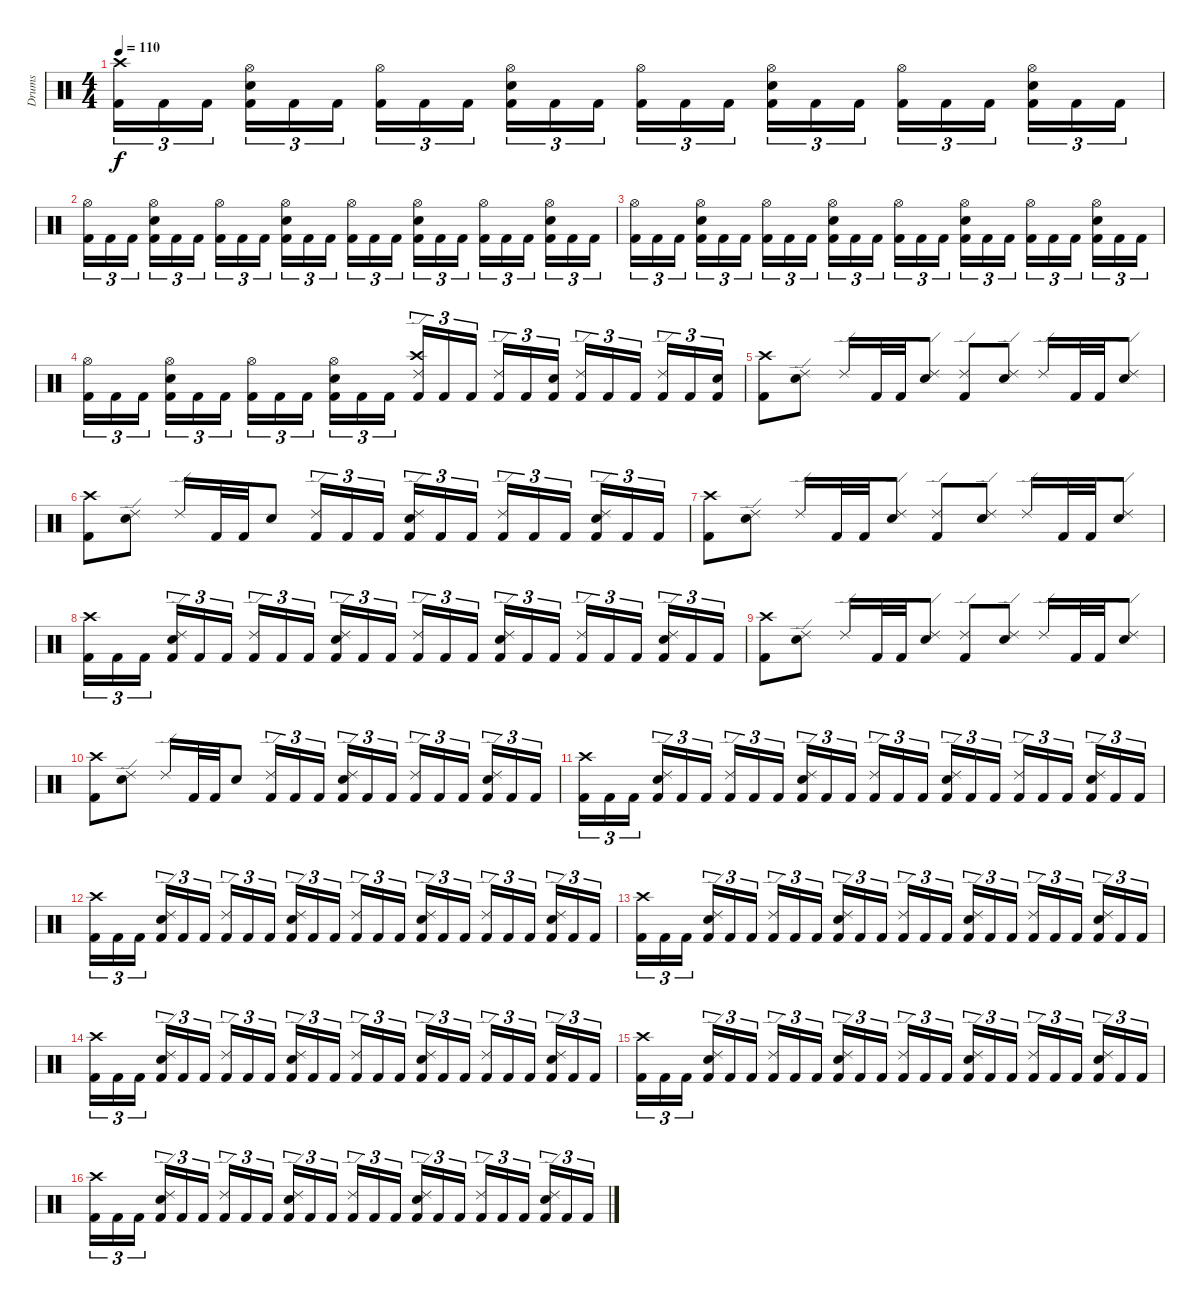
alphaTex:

\track ("Drums" "Drums") {instrument percussion}
\staff {score}
\articulation defaults
\ts (4 4)
\tempo 110
\clef neutral
\ks c
("Kick (hit) 2" "Crash high (hit)").16{tu (3 2) dy f} "Kick (hit) 2".16{tu (3 2)} "Kick (hit) 2".16{tu (3 2)} ("Kick (hit) 2" "Snare (hit) 2" "Hi-Hat (open)").16{tu (3 2)} "Kick (hit) 2".16{tu (3 2)} "Kick (hit) 2".16{tu (3 2)} ("Kick (hit) 2" "Hi-Hat (open)").16{tu (3 2)} "Kick (hit) 2".16{tu (3 2)} "Kick (hit) 2".16{tu (3 2)} ("Kick (hit) 2" "Snare (hit) 2" "Hi-Hat (open)").16{tu (3 2)} "Kick (hit) 2".16{tu (3 2)} "Kick (hit) 2".16{tu (3 2)} ("Kick (hit) 2" "Hi-Hat (open)").16{tu (3 2)} "Kick (hit) 2".16{tu (3 2)} "Kick (hit) 2".16{tu (3 2)} ("Kick (hit) 2" "Snare (hit) 2" "Hi-Hat (open)").16{tu (3 2)} "Kick (hit) 2".16{tu (3 2)} "Kick (hit) 2".16{tu (3 2)} ("Kick (hit) 2" "Hi-Hat (open)").16{tu (3 2)} "Kick (hit) 2".16{tu (3 2)} "Kick (hit) 2".16{tu (3 2)} ("Kick (hit) 2" "Snare (hit) 2" "Hi-Hat (open)").16{tu (3 2)} "Kick (hit) 2".16{tu (3 2)} "Kick (hit) 2".16{tu (3 2)} |
("Kick (hit) 2" "Hi-Hat (open)").16{tu (3 2)} "Kick (hit) 2".16{tu (3 2)} "Kick (hit) 2".16{tu (3 2)} ("Kick (hit) 2" "Snare (hit) 2" "Hi-Hat (open)").16{tu (3 2)} "Kick (hit) 2".16{tu (3 2)} "Kick (hit) 2".16{tu (3 2)} ("Kick (hit) 2" "Hi-Hat (open)").16{tu (3 2)} "Kick (hit) 2".16{tu (3 2)} "Kick (hit) 2".16{tu (3 2)} ("Kick (hit) 2" "Snare (hit) 2" "Hi-Hat (open)").16{tu (3 2)} "Kick (hit) 2".16{tu (3 2)} "Kick (hit) 2".16{tu (3 2)} ("Kick (hit) 2" "Hi-Hat (open)").16{tu (3 2)} "Kick (hit) 2".16{tu (3 2)} "Kick (hit) 2".16{tu (3 2)} ("Kick (hit) 2" "Snare (hit) 2" "Hi-Hat (open)").16{tu (3 2)} "Kick (hit) 2".16{tu (3 2)} "Kick (hit) 2".16{tu (3 2)} ("Kick (hit) 2" "Hi-Hat (open)").16{tu (3 2)} "Kick (hit) 2".16{tu (3 2)} "Kick (hit) 2".16{tu (3 2)} ("Kick (hit) 2" "Snare (hit) 2" "Hi-Hat (open)").16{tu (3 2)} "Kick (hit) 2".16{tu (3 2)} "Kick (hit) 2".16{tu (3 2)} |
("Kick (hit) 2" "Hi-Hat (open)").16{tu (3 2)} "Kick (hit) 2".16{tu (3 2)} "Kick (hit) 2".16{tu (3 2)} ("Kick (hit) 2" "Snare (hit) 2" "Hi-Hat (open)").16{tu (3 2)} "Kick (hit) 2".16{tu (3 2)} "Kick (hit) 2".16{tu (3 2)} ("Kick (hit) 2" "Hi-Hat (open)").16{tu (3 2)} "Kick (hit) 2".16{tu (3 2)} "Kick (hit) 2".16{tu (3 2)} ("Kick (hit) 2" "Snare (hit) 2" "Hi-Hat (open)").16{tu (3 2)} "Kick (hit) 2".16{tu (3 2)} "Kick (hit) 2".16{tu (3 2)} ("Kick (hit) 2" "Hi-Hat (open)").16{tu (3 2)} "Kick (hit) 2".16{tu (3 2)} "Kick (hit) 2".16{tu (3 2)} ("Kick (hit) 2" "Snare (hit) 2" "Hi-Hat (open)").16{tu (3 2)} "Kick (hit) 2".16{tu (3 2)} "Kick (hit) 2".16{tu (3 2)} ("Kick (hit) 2" "Hi-Hat (open)").16{tu (3 2)} "Kick (hit) 2".16{tu (3 2)} "Kick (hit) 2".16{tu (3 2)} ("Kick (hit) 2" "Snare (hit) 2" "Hi-Hat (open)").16{tu (3 2)} "Kick (hit) 2".16{tu (3 2)} "Kick (hit) 2".16{tu (3 2)} |
("Kick (hit) 2" "Hi-Hat (open)").16{tu (3 2)} "Kick (hit) 2".16{tu (3 2)} "Kick (hit) 2".16{tu (3 2)} ("Kick (hit) 2" "Snare (hit) 2" "Hi-Hat (open)").16{tu (3 2)} "Kick (hit) 2".16{tu (3 2)} "Kick (hit) 2".16{tu (3 2)} ("Kick (hit) 2" "Hi-Hat (open)").16{tu (3 2)} "Kick (hit) 2".16{tu (3 2)} "Kick (hit) 2".16{tu (3 2)} ("Kick (hit) 2" "Snare (hit) 2" "Hi-Hat (open)").16{tu (3 2)} "Kick (hit) 2".16{tu (3 2)} "Kick (hit) 2".16{tu (3 2)} ("Kick (hit) 2" "Ride (edge) 2" "Crash high (hit)").16{tu (3 2)} "Kick (hit) 2".16{tu (3 2)} "Kick (hit) 2".16{tu (3 2)} ("Kick (hit) 2" "Ride (edge) 2").16{tu (3 2)} "Kick (hit) 2".16{tu (3 2)} ("Kick (hit) 2" "Snare (hit) 2").16{tu (3 2)} ("Kick (hit) 2" "Ride (edge) 2").16{tu (3 2)} "Kick (hit) 2".16{tu (3 2)} "Kick (hit) 2".16{tu (3 2)} ("Kick (hit) 2" "Ride (edge) 2").16{tu (3 2)} "Kick (hit) 2".16{tu (3 2)} ("Kick (hit) 2" "Snare (hit) 2").16{tu (3 2)} |
("Kick (hit) 2" "Crash high (hit)").8 ("Snare (hit) 2" "Ride (edge) 2").8 "Ride (edge) 2".16 "Kick (hit) 2".32 "Kick (hit) 2".32 ("Snare (hit) 2" "Ride (edge) 2").8 ("Kick (hit) 2" "Ride (edge) 2").8 ("Snare (hit) 2" "Ride (edge) 2").8 "Ride (edge) 2".16 "Kick (hit) 2".32 "Kick (hit) 2".32 ("Snare (hit) 2" "Ride (edge) 2").8 |
("Kick (hit) 2" "Crash high (hit)").8 ("Snare (hit) 2" "Ride (edge) 2").8 "Ride (edge) 2".16 "Kick (hit) 2".32 "Kick (hit) 2".32 "Snare (hit) 2".8 ("Kick (hit) 2" "Ride (edge) 2").16{tu (3 2)} "Kick (hit) 2".16{tu (3 2)} "Kick (hit) 2".16{tu (3 2)} ("Kick (hit) 2" "Snare (hit) 2" "Ride (edge) 2").16{tu (3 2)} "Kick (hit) 2".16{tu (3 2)} "Kick (hit) 2".16{tu (3 2)} ("Kick (hit) 2" "Ride (edge) 2").16{tu (3 2)} "Kick (hit) 2".16{tu (3 2)} "Kick (hit) 2".16{tu (3 2)} ("Kick (hit) 2" "Snare (hit) 2" "Ride (edge) 2").16{tu (3 2)} "Kick (hit) 2".16{tu (3 2)} "Kick (hit) 2".16{tu (3 2)} |
("Kick (hit) 2" "Crash high (hit)").8 ("Snare (hit) 2" "Ride (edge) 2").8 "Ride (edge) 2".16 "Kick (hit) 2".32 "Kick (hit) 2".32 ("Snare (hit) 2" "Ride (edge) 2").8 ("Kick (hit) 2" "Ride (edge) 2").8 ("Snare (hit) 2" "Ride (edge) 2").8 "Ride (edge) 2".16 "Kick (hit) 2".32 "Kick (hit) 2".32 ("Snare (hit) 2" "Ride (edge) 2").8 |
("Kick (hit) 2" "Crash high (hit)").16{tu (3 2)} "Kick (hit) 2".16{tu (3 2)} "Kick (hit) 2".16{tu (3 2)} ("Kick (hit) 2" "Snare (hit) 2" "Ride (edge) 2").16{tu (3 2)} "Kick (hit) 2".16{tu (3 2)} "Kick (hit) 2".16{tu (3 2)} ("Kick (hit) 2" "Ride (edge) 2").16{tu (3 2)} "Kick (hit) 2".16{tu (3 2)} "Kick (hit) 2".16{tu (3 2)} ("Kick (hit) 2" "Snare (hit) 2" "Ride (edge) 2").16{tu (3 2)} "Kick (hit) 2".16{tu (3 2)} "Kick (hit) 2".16{tu (3 2)} ("Kick (hit) 2" "Ride (edge) 2").16{tu (3 2)} "Kick (hit) 2".16{tu (3 2)} "Kick (hit) 2".16{tu (3 2)} ("Kick (hit) 2" "Snare (hit) 2" "Ride (edge) 2").16{tu (3 2)} "Kick (hit) 2".16{tu (3 2)} "Kick (hit) 2".16{tu (3 2)} ("Kick (hit) 2" "Ride (edge) 2").16{tu (3 2)} "Kick (hit) 2".16{tu (3 2)} "Kick (hit) 2".16{tu (3 2)} ("Kick (hit) 2" "Snare (hit) 2" "Ride (edge) 2").16{tu (3 2)} "Kick (hit) 2".16{tu (3 2)} "Kick (hit) 2".16{tu (3 2)} |
("Kick (hit) 2" "Crash high (hit)").8 ("Snare (hit) 2" "Ride (edge) 2").8 "Ride (edge) 2".16 "Kick (hit) 2".32 "Kick (hit) 2".32 ("Snare (hit) 2" "Ride (edge) 2").8 ("Kick (hit) 2" "Ride (edge) 2").8 ("Snare (hit) 2" "Ride (edge) 2").8 "Ride (edge) 2".16 "Kick (hit) 2".32 "Kick (hit) 2".32 ("Snare (hit) 2" "Ride (edge) 2").8 |
("Kick (hit) 2" "Crash high (hit)").8 ("Snare (hit) 2" "Ride (edge) 2").8 "Ride (edge) 2".16 "Kick (hit) 2".32 "Kick (hit) 2".32 "Snare (hit) 2".8 ("Kick (hit) 2" "Ride (edge) 2").16{tu (3 2)} "Kick (hit) 2".16{tu (3 2)} "Kick (hit) 2".16{tu (3 2)} ("Kick (hit) 2" "Snare (hit) 2" "Ride (edge) 2").16{tu (3 2)} "Kick (hit) 2".16{tu (3 2)} "Kick (hit) 2".16{tu (3 2)} ("Kick (hit) 2" "Ride (edge) 2").16{tu (3 2)} "Kick (hit) 2".16{tu (3 2)} "Kick (hit) 2".16{tu (3 2)} ("Kick (hit) 2" "Snare (hit) 2" "Ride (edge) 2").16{tu (3 2)} "Kick (hit) 2".16{tu (3 2)} "Kick (hit) 2".16{tu (3 2)} |
("Kick (hit) 2" "Crash high (hit)").16{tu (3 2)} "Kick (hit) 2".16{tu (3 2)} "Kick (hit) 2".16{tu (3 2)} ("Kick (hit) 2" "Snare (hit) 2" "Ride (edge) 2").16{tu (3 2)} "Kick (hit) 2".16{tu (3 2)} "Kick (hit) 2".16{tu (3 2)} ("Kick (hit) 2" "Ride (edge) 2").16{tu (3 2)} "Kick (hit) 2".16{tu (3 2)} "Kick (hit) 2".16{tu (3 2)} ("Kick (hit) 2" "Snare (hit) 2" "Ride (edge) 2").16{tu (3 2)} "Kick (hit) 2".16{tu (3 2)} "Kick (hit) 2".16{tu (3 2)} ("Kick (hit) 2" "Ride (edge) 2").16{tu (3 2)} "Kick (hit) 2".16{tu (3 2)} "Kick (hit) 2".16{tu (3 2)} ("Kick (hit) 2" "Snare (hit) 2" "Ride (edge) 2").16{tu (3 2)} "Kick (hit) 2".16{tu (3 2)} "Kick (hit) 2".16{tu (3 2)} ("Kick (hit) 2" "Ride (edge) 2").16{tu (3 2)} "Kick (hit) 2".16{tu (3 2)} "Kick (hit) 2".16{tu (3 2)} ("Kick (hit) 2" "Snare (hit) 2" "Ride (edge) 2").16{tu (3 2)} "Kick (hit) 2".16{tu (3 2)} "Kick (hit) 2".16{tu (3 2)} |
("Kick (hit) 2" "Crash high (hit)").16{tu (3 2)} "Kick (hit) 2".16{tu (3 2)} "Kick (hit) 2".16{tu (3 2)} ("Kick (hit) 2" "Snare (hit) 2" "Ride (edge) 2").16{tu (3 2)} "Kick (hit) 2".16{tu (3 2)} "Kick (hit) 2".16{tu (3 2)} ("Kick (hit) 2" "Ride (edge) 2").16{tu (3 2)} "Kick (hit) 2".16{tu (3 2)} "Kick (hit) 2".16{tu (3 2)} ("Kick (hit) 2" "Snare (hit) 2" "Ride (edge) 2").16{tu (3 2)} "Kick (hit) 2".16{tu (3 2)} "Kick (hit) 2".16{tu (3 2)} ("Kick (hit) 2" "Ride (edge) 2").16{tu (3 2)} "Kick (hit) 2".16{tu (3 2)} "Kick (hit) 2".16{tu (3 2)} ("Kick (hit) 2" "Snare (hit) 2" "Ride (edge) 2").16{tu (3 2)} "Kick (hit) 2".16{tu (3 2)} "Kick (hit) 2".16{tu (3 2)} ("Kick (hit) 2" "Ride (edge) 2").16{tu (3 2)} "Kick (hit) 2".16{tu (3 2)} "Kick (hit) 2".16{tu (3 2)} ("Kick (hit) 2" "Snare (hit) 2" "Ride (edge) 2").16{tu (3 2)} "Kick (hit) 2".16{tu (3 2)} "Kick (hit) 2".16{tu (3 2)} |
("Kick (hit) 2" "Crash high (hit)").16{tu (3 2)} "Kick (hit) 2".16{tu (3 2)} "Kick (hit) 2".16{tu (3 2)} ("Kick (hit) 2" "Snare (hit) 2" "Ride (edge) 2").16{tu (3 2)} "Kick (hit) 2".16{tu (3 2)} "Kick (hit) 2".16{tu (3 2)} ("Kick (hit) 2" "Ride (edge) 2").16{tu (3 2)} "Kick (hit) 2".16{tu (3 2)} "Kick (hit) 2".16{tu (3 2)} ("Kick (hit) 2" "Snare (hit) 2" "Ride (edge) 2").16{tu (3 2)} "Kick (hit) 2".16{tu (3 2)} "Kick (hit) 2".16{tu (3 2)} ("Kick (hit) 2" "Ride (edge) 2").16{tu (3 2)} "Kick (hit) 2".16{tu (3 2)} "Kick (hit) 2".16{tu (3 2)} ("Kick (hit) 2" "Snare (hit) 2" "Ride (edge) 2").16{tu (3 2)} "Kick (hit) 2".16{tu (3 2)} "Kick (hit) 2".16{tu (3 2)} ("Kick (hit) 2" "Ride (edge) 2").16{tu (3 2)} "Kick (hit) 2".16{tu (3 2)} "Kick (hit) 2".16{tu (3 2)} ("Kick (hit) 2" "Snare (hit) 2" "Ride (edge) 2").16{tu (3 2)} "Kick (hit) 2".16{tu (3 2)} "Kick (hit) 2".16{tu (3 2)} |
("Kick (hit) 2" "Crash high (hit)").16{tu (3 2)} "Kick (hit) 2".16{tu (3 2)} "Kick (hit) 2".16{tu (3 2)} ("Kick (hit) 2" "Snare (hit) 2" "Ride (edge) 2").16{tu (3 2)} "Kick (hit) 2".16{tu (3 2)} "Kick (hit) 2".16{tu (3 2)} ("Kick (hit) 2" "Ride (edge) 2").16{tu (3 2)} "Kick (hit) 2".16{tu (3 2)} "Kick (hit) 2".16{tu (3 2)} ("Kick (hit) 2" "Snare (hit) 2" "Ride (edge) 2").16{tu (3 2)} "Kick (hit) 2".16{tu (3 2)} "Kick (hit) 2".16{tu (3 2)} ("Kick (hit) 2" "Ride (edge) 2").16{tu (3 2)} "Kick (hit) 2".16{tu (3 2)} "Kick (hit) 2".16{tu (3 2)} ("Kick (hit) 2" "Snare (hit) 2" "Ride (edge) 2").16{tu (3 2)} "Kick (hit) 2".16{tu (3 2)} "Kick (hit) 2".16{tu (3 2)} ("Kick (hit) 2" "Ride (edge) 2").16{tu (3 2)} "Kick (hit) 2".16{tu (3 2)} "Kick (hit) 2".16{tu (3 2)} ("Kick (hit) 2" "Snare (hit) 2" "Ride (edge) 2").16{tu (3 2)} "Kick (hit) 2".16{tu (3 2)} "Kick (hit) 2".16{tu (3 2)} |
("Kick (hit) 2" "Crash high (hit)").16{tu (3 2)} "Kick (hit) 2".16{tu (3 2)} "Kick (hit) 2".16{tu (3 2)} ("Kick (hit) 2" "Snare (hit) 2" "Ride (edge) 2").16{tu (3 2)} "Kick (hit) 2".16{tu (3 2)} "Kick (hit) 2".16{tu (3 2)} ("Kick (hit) 2" "Ride (edge) 2").16{tu (3 2)} "Kick (hit) 2".16{tu (3 2)} "Kick (hit) 2".16{tu (3 2)} ("Kick (hit) 2" "Snare (hit) 2" "Ride (edge) 2").16{tu (3 2)} "Kick (hit) 2".16{tu (3 2)} "Kick (hit) 2".16{tu (3 2)} ("Kick (hit) 2" "Ride (edge) 2").16{tu (3 2)} "Kick (hit) 2".16{tu (3 2)} "Kick (hit) 2".16{tu (3 2)} ("Kick (hit) 2" "Snare (hit) 2" "Ride (edge) 2").16{tu (3 2)} "Kick (hit) 2".16{tu (3 2)} "Kick (hit) 2".16{tu (3 2)} ("Kick (hit) 2" "Ride (edge) 2").16{tu (3 2)} "Kick (hit) 2".16{tu (3 2)} "Kick (hit) 2".16{tu (3 2)} ("Kick (hit) 2" "Snare (hit) 2" "Ride (edge) 2").16{tu (3 2)} "Kick (hit) 2".16{tu (3 2)} "Kick (hit) 2".16{tu (3 2)} |
("Kick (hit) 2" "Crash high (hit)").16{tu (3 2)} "Kick (hit) 2".16{tu (3 2)} "Kick (hit) 2".16{tu (3 2)} ("Kick (hit) 2" "Snare (hit) 2" "Ride (edge) 2").16{tu (3 2)} "Kick (hit) 2".16{tu (3 2)} "Kick (hit) 2".16{tu (3 2)} ("Kick (hit) 2" "Ride (edge) 2").16{tu (3 2)} "Kick (hit) 2".16{tu (3 2)} "Kick (hit) 2".16{tu (3 2)} ("Kick (hit) 2" "Snare (hit) 2" "Ride (edge) 2").16{tu (3 2)} "Kick (hit) 2".16{tu (3 2)} "Kick (hit) 2".16{tu (3 2)} ("Kick (hit) 2" "Ride (edge) 2").16{tu (3 2)} "Kick (hit) 2".16{tu (3 2)} "Kick (hit) 2".16{tu (3 2)} ("Kick (hit) 2" "Snare (hit) 2" "Ride (edge) 2").16{tu (3 2)} "Kick (hit) 2".16{tu (3 2)} "Kick (hit) 2".16{tu (3 2)} ("Kick (hit) 2" "Ride (edge) 2").16{tu (3 2)} "Kick (hit) 2".16{tu (3 2)} "Kick (hit) 2".16{tu (3 2)} ("Kick (hit) 2" "Snare (hit) 2" "Ride (edge) 2").16{tu (3 2)} "Kick (hit) 2".16{tu (3 2)} "Kick (hit) 2".16{tu (3 2)}
